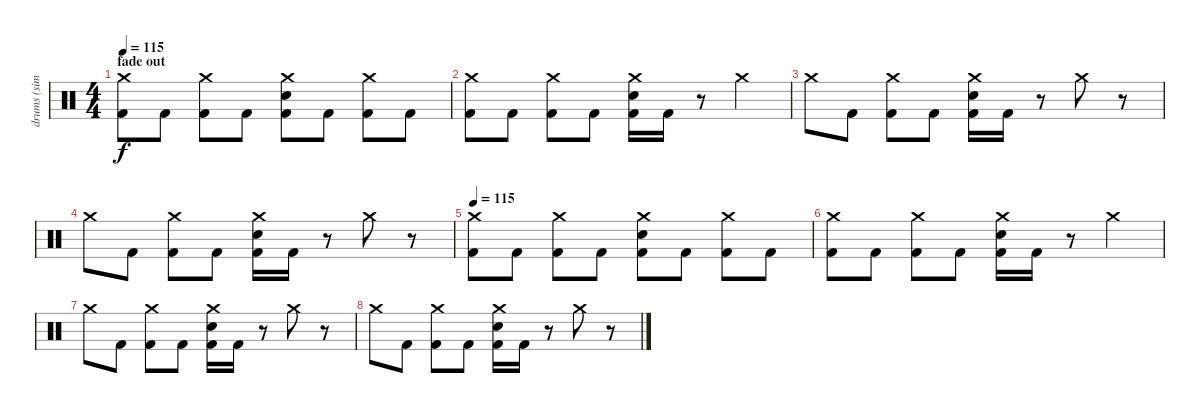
\track ("drums (simple)" "drums (sim") {instrument percussion}
\staff {score}
\articulation defaults
\ts (4 4)
\section ("" "fade out")
\tempo 115
\clef neutral
\ks c
("Crash medium (hit)" "Kick (hit) 2").8{dy f volume 9} "Kick (hit) 2".8 ("Crash medium (hit)" "Kick (hit) 2").8 "Kick (hit) 2".8 ("Crash medium (hit)" "Electric Snare (hit)" "Kick (hit) 2").8 "Kick (hit) 2".8 ("Crash medium (hit)" "Kick (hit) 2").8 "Kick (hit) 2".8 |
("Crash medium (hit)" "Kick (hit) 2").8 "Kick (hit) 2".8 ("Crash medium (hit)" "Kick (hit) 2").8 "Kick (hit) 2".8 ("Crash medium (hit)" "Electric Snare (hit)" "Kick (hit) 2").16 "Kick (hit) 2".16 r.8 "Crash medium (hit)".4 |
"Crash medium (hit)".8 "Kick (hit) 2".8 ("Crash medium (hit)" "Kick (hit) 2").8 "Kick (hit) 2".8 ("Crash medium (hit)" "Electric Snare (hit)" "Kick (hit) 2").16 "Kick (hit) 2".16 r.8 "Crash medium (hit)".8 r.8 |
"Crash medium (hit)".8 "Kick (hit) 2".8 ("Crash medium (hit)" "Kick (hit) 2").8 "Kick (hit) 2".8 ("Crash medium (hit)" "Electric Snare (hit)" "Kick (hit) 2").16 "Kick (hit) 2".16 r.8 "Crash medium (hit)".8 r.8 |
\tempo 115
("Crash medium (hit)" "Kick (hit) 2").8{volume 4} "Kick (hit) 2".8 ("Crash medium (hit)" "Kick (hit) 2").8 "Kick (hit) 2".8 ("Crash medium (hit)" "Electric Snare (hit)" "Kick (hit) 2").8 "Kick (hit) 2".8 ("Crash medium (hit)" "Kick (hit) 2").8 "Kick (hit) 2".8 |
("Crash medium (hit)" "Kick (hit) 2").8 "Kick (hit) 2".8 ("Crash medium (hit)" "Kick (hit) 2").8 "Kick (hit) 2".8 ("Crash medium (hit)" "Electric Snare (hit)" "Kick (hit) 2").16 "Kick (hit) 2".16 r.8 "Crash medium (hit)".4 |
"Crash medium (hit)".8 "Kick (hit) 2".8 ("Crash medium (hit)" "Kick (hit) 2").8 "Kick (hit) 2".8 ("Crash medium (hit)" "Electric Snare (hit)" "Kick (hit) 2").16 "Kick (hit) 2".16 r.8 "Crash medium (hit)".8 r.8 |
"Crash medium (hit)".8 "Kick (hit) 2".8 ("Crash medium (hit)" "Kick (hit) 2").8 "Kick (hit) 2".8 ("Crash medium (hit)" "Electric Snare (hit)" "Kick (hit) 2").16 "Kick (hit) 2".16 r.8 "Crash medium (hit)".8 r.8
